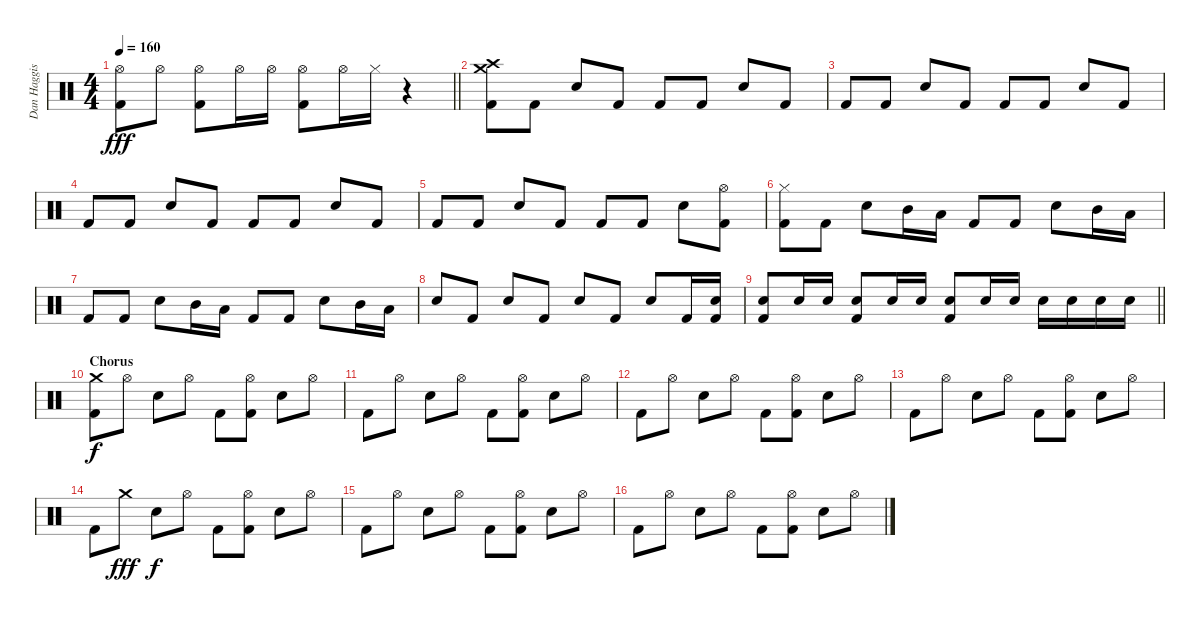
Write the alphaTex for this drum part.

\track ("Dan Haggis" "Dan Haggis") {instrument percussion}
\staff {score}
\articulation defaults
\ts (4 4)
\tempo 160
\clef neutral
\barLineRight lightlight
\ks c
("Kick (hit) 2" "Hi-Hat (open)").8{dy fff} "Hi-Hat (open)".8 ("Kick (hit) 2" "Hi-Hat (open)").8 "Hi-Hat (open)".16 "Hi-Hat (open)".16 ("Kick (hit) 2" "Hi-Hat (open)").8 "Hi-Hat (open)".16 "Hi-Hat (closed)".16 r.4 |
("Crash medium (hit)" "Crash high (hit)" "Kick (hit) 2").8 "Kick (hit) 2".8 "Electric Snare (hit)".8 "Kick (hit) 2".8 "Kick (hit) 2".8 "Kick (hit) 2".8 "Electric Snare (hit)".8 "Kick (hit) 2".8 |
"Kick (hit) 2".8 "Kick (hit) 2".8 "Electric Snare (hit)".8 "Kick (hit) 2".8 "Kick (hit) 2".8 "Kick (hit) 2".8 "Electric Snare (hit)".8 "Kick (hit) 2".8 |
"Kick (hit) 2".8 "Kick (hit) 2".8 "Electric Snare (hit)".8 "Kick (hit) 2".8 "Kick (hit) 2".8 "Kick (hit) 2".8 "Electric Snare (hit)".8 "Kick (hit) 2".8 |
"Kick (hit) 2".8 "Kick (hit) 2".8 "Electric Snare (hit)".8 "Kick (hit) 2".8 "Kick (hit) 2".8 "Kick (hit) 2".8 "Electric Snare (hit)".8 ("Hi-Hat (open)" "Kick (hit) 2").8 |
("Hi-Hat (closed)" "Kick (hit) 2").8 "Kick (hit) 2".8 "Electric Snare (hit)".8 "Mid Tom (hit)".16 "Low Tom (hit)".16 "Kick (hit) 2".8 "Kick (hit) 2".8 "Electric Snare (hit)".8 "Mid Tom (hit)".16 "Low Tom (hit)".16 |
"Kick (hit) 2".8 "Kick (hit) 2".8 "Electric Snare (hit)".8 "Mid Tom (hit)".16 "Low Tom (hit)".16 "Kick (hit) 2".8 "Kick (hit) 2".8 "Electric Snare (hit)".8 "Mid Tom (hit)".16 "Low Tom (hit)".16 |
"Electric Snare (hit)".8 "Kick (hit) 2".8 "Electric Snare (hit)".8 "Kick (hit) 2".8 "Electric Snare (hit)".8 "Kick (hit) 2".8 "Electric Snare (hit)".8 "Kick (hit) 2".16 ("Kick (hit) 2" "Electric Snare (hit)").16 |
\barLineRight lightlight
("Kick (hit) 2" "Electric Snare (hit)").8 "Electric Snare (hit)".16 "Electric Snare (hit)".16 ("Kick (hit) 2" "Electric Snare (hit)").8 "Electric Snare (hit)".16 "Electric Snare (hit)".16 ("Kick (hit) 2" "Electric Snare (hit)").8 "Electric Snare (hit)".16 "Electric Snare (hit)".16 "Electric Snare (hit)".16 "Electric Snare (hit)".16 "Electric Snare (hit)".16 "Electric Snare (hit)".16 |
\section ("" "Chorus")
("Crash medium (hit)" "Kick (hit) 2").8{dy f} "Hi-Hat (open)".8 "Electric Snare (hit)".8 "Hi-Hat (open)".8 "Kick (hit) 2".8 ("Hi-Hat (open)" "Kick (hit) 2").8 "Electric Snare (hit)".8 "Hi-Hat (open)".8 |
"Kick (hit) 2".8 "Hi-Hat (open)".8 "Electric Snare (hit)".8 "Hi-Hat (open)".8 "Kick (hit) 2".8 ("Hi-Hat (open)" "Kick (hit) 2").8 "Electric Snare (hit)".8 "Hi-Hat (open)".8 |
"Kick (hit) 2".8 "Hi-Hat (open)".8 "Electric Snare (hit)".8 "Hi-Hat (open)".8 "Kick (hit) 2".8 ("Hi-Hat (open)" "Kick (hit) 2").8 "Electric Snare (hit)".8 "Hi-Hat (open)".8 |
"Kick (hit) 2".8 "Hi-Hat (open)".8 "Electric Snare (hit)".8 "Hi-Hat (open)".8 "Kick (hit) 2".8 ("Hi-Hat (open)" "Kick (hit) 2").8 "Electric Snare (hit)".8 "Hi-Hat (open)".8 |
"Kick (hit) 2".8 "Crash medium (hit)".8{dy fff} "Electric Snare (hit)".8{dy f} "Hi-Hat (open)".8 "Kick (hit) 2".8 ("Hi-Hat (open)" "Kick (hit) 2").8 "Electric Snare (hit)".8 "Hi-Hat (open)".8 |
"Kick (hit) 2".8 "Hi-Hat (open)".8 "Electric Snare (hit)".8 "Hi-Hat (open)".8 "Kick (hit) 2".8 ("Hi-Hat (open)" "Kick (hit) 2").8 "Electric Snare (hit)".8 "Hi-Hat (open)".8 |
"Kick (hit) 2".8 "Hi-Hat (open)".8 "Electric Snare (hit)".8 "Hi-Hat (open)".8 "Kick (hit) 2".8 ("Hi-Hat (open)" "Kick (hit) 2").8 "Electric Snare (hit)".8 "Hi-Hat (open)".8
